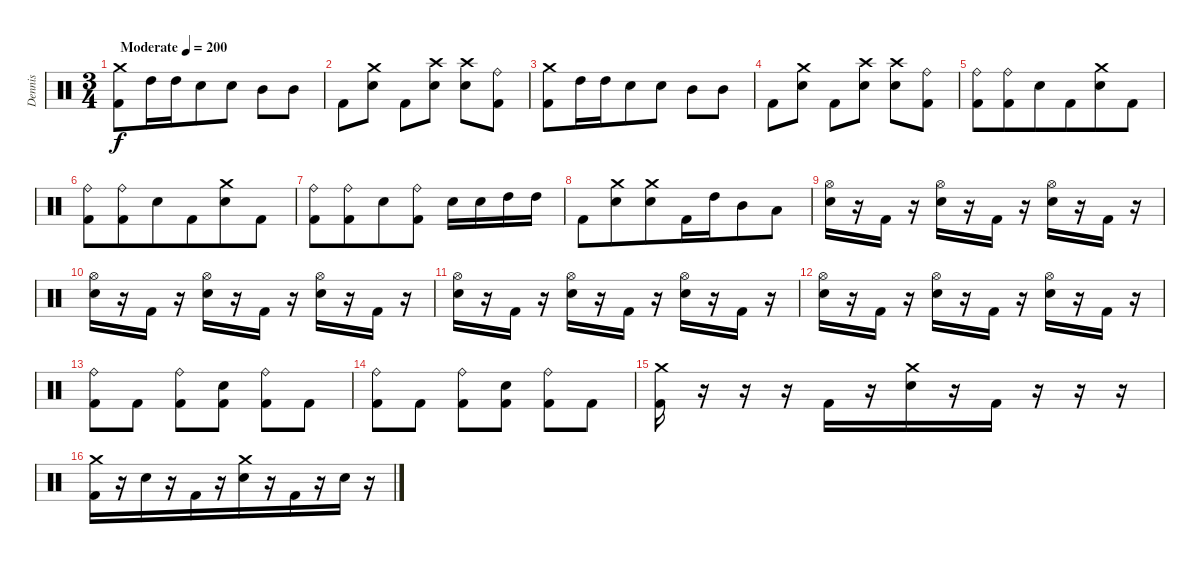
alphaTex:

\track ("Dennis" "Dennis") {instrument percussion}
\staff {score}
\articulation defaults
\ts (3 4)
\tempo (200 "Moderate")
\clef neutral
\ks c
("Crash medium (hit)" "Kick (hit) 2").8{dy f} "High Tom (hit)".16 "High Tom (hit)".16{beam merge} "Electric Snare (hit)".8 "Electric Snare (hit)".8 "Mid Tom (hit)".8{beam merge} "Mid Tom (hit)".8 |
"Kick (hit) 2".8 ("Crash medium (hit)" "Electric Snare (hit)").8 "Kick (hit) 2".8{beam merge} ("Crash high (hit)" "Electric Snare (hit)").8 ("Crash high (hit)" "Electric Snare (hit)").8 ("Ride (bell)" "Kick (hit) 2").8 |
("Crash medium (hit)" "Kick (hit) 2").8 "High Tom (hit)".16 "High Tom (hit)".16{beam merge} "Electric Snare (hit)".8 "Electric Snare (hit)".8 "Mid Tom (hit)".8{beam merge} "Mid Tom (hit)".8 |
"Kick (hit) 2".8 ("Crash medium (hit)" "Electric Snare (hit)").8 "Kick (hit) 2".8{beam merge} ("Crash high (hit)" "Electric Snare (hit)").8 ("Crash high (hit)" "Electric Snare (hit)").8 ("Ride (bell)" "Kick (hit) 2").8 |
("Ride (bell)" "Kick (hit) 2").8{beam merge} ("Ride (bell)" "Kick (hit) 2").8{beam merge} "Electric Snare (hit)".8{beam merge} "Kick (hit) 2".8{beam merge} ("Crash medium (hit)" "Electric Snare (hit)").8 "Kick (hit) 2".8 |
("Ride (bell)" "Kick (hit) 2").8{beam merge} ("Ride (bell)" "Kick (hit) 2").8{beam merge} "Electric Snare (hit)".8{beam merge} "Kick (hit) 2".8{beam merge} ("Crash medium (hit)" "Electric Snare (hit)").8 "Kick (hit) 2".8 |
("Ride (bell)" "Kick (hit) 2").8 ("Ride (bell)" "Kick (hit) 2").8{beam merge} "Electric Snare (hit)".8{beam merge} ("Ride (bell)" "Kick (hit) 2").8 "Electric Snare (hit)".16 "Electric Snare (hit)".16{beam merge} "High Tom (hit)".16 "High Tom (hit)".16 |
"Kick (hit) 2".8 ("Crash medium (hit)" "Electric Snare (hit)").8{beam merge} ("Crash medium (hit)" "Electric Snare (hit)").8{beam merge} "Kick (hit) 2".16{beam merge} "High Tom (hit)".16{beam merge} "Mid Tom (hit)".8{beam merge} "Low Tom (hit)".8 |
("Hi-Hat (open)" "Electric Snare (hit)").16{beam merge} r.16 "Kick (hit) 2".16 r.16 ("Hi-Hat (open)" "Electric Snare (hit)").16 r.16 "Kick (hit) 2".16 r.16 ("Hi-Hat (open)" "Electric Snare (hit)").16{beam merge} r.16{beam merge} "Kick (hit) 2".16 r.16 |
("Hi-Hat (open)" "Electric Snare (hit)").16{beam merge} r.16 "Kick (hit) 2".16 r.16 ("Hi-Hat (open)" "Electric Snare (hit)").16 r.16 "Kick (hit) 2".16 r.16 ("Hi-Hat (open)" "Electric Snare (hit)").16{beam merge} r.16{beam merge} "Kick (hit) 2".16 r.16 |
("Hi-Hat (open)" "Electric Snare (hit)").16{beam merge} r.16 "Kick (hit) 2".16 r.16 ("Hi-Hat (open)" "Electric Snare (hit)").16 r.16 "Kick (hit) 2".16 r.16 ("Hi-Hat (open)" "Electric Snare (hit)").16{beam merge} r.16{beam merge} "Kick (hit) 2".16 r.16 |
("Hi-Hat (open)" "Electric Snare (hit)").16{beam merge} r.16 "Kick (hit) 2".16 r.16 ("Hi-Hat (open)" "Electric Snare (hit)").16 r.16 "Kick (hit) 2".16 r.16 ("Hi-Hat (open)" "Electric Snare (hit)").16{beam merge} r.16{beam merge} "Kick (hit) 2".16 r.16 |
("Ride (bell)" "Kick (hit) 2").8 "Kick (hit) 2".8 ("Ride (bell)" "Kick (hit) 2").8 ("Electric Snare (hit)" "Kick (hit) 2").8 ("Ride (bell)" "Kick (hit) 2").8{beam merge} "Kick (hit) 2".8 |
("Ride (bell)" "Kick (hit) 2").8 "Kick (hit) 2".8 ("Ride (bell)" "Kick (hit) 2").8 ("Electric Snare (hit)" "Kick (hit) 2").8 ("Ride (bell)" "Kick (hit) 2").8{beam merge} "Kick (hit) 2".8 |
("Crash medium (hit)" "Kick (hit) 2").16 r.16 r.16{beam merge} r.16{beam merge} "Kick (hit) 2".16{beam merge} r.16 ("Crash medium (hit)" "Electric Snare (hit)").16{beam merge} r.16 "Kick (hit) 2".16 r.16 r.16 r.16 |
("Crash medium (hit)" "Kick (hit) 2").16 r.16 "Electric Snare (hit)".16{beam merge} r.16{beam merge} "Kick (hit) 2".16{beam merge} r.16 ("Crash medium (hit)" "Electric Snare (hit)").16{beam merge} r.16 "Kick (hit) 2".16 r.16 "Electric Snare (hit)".16 r.16
